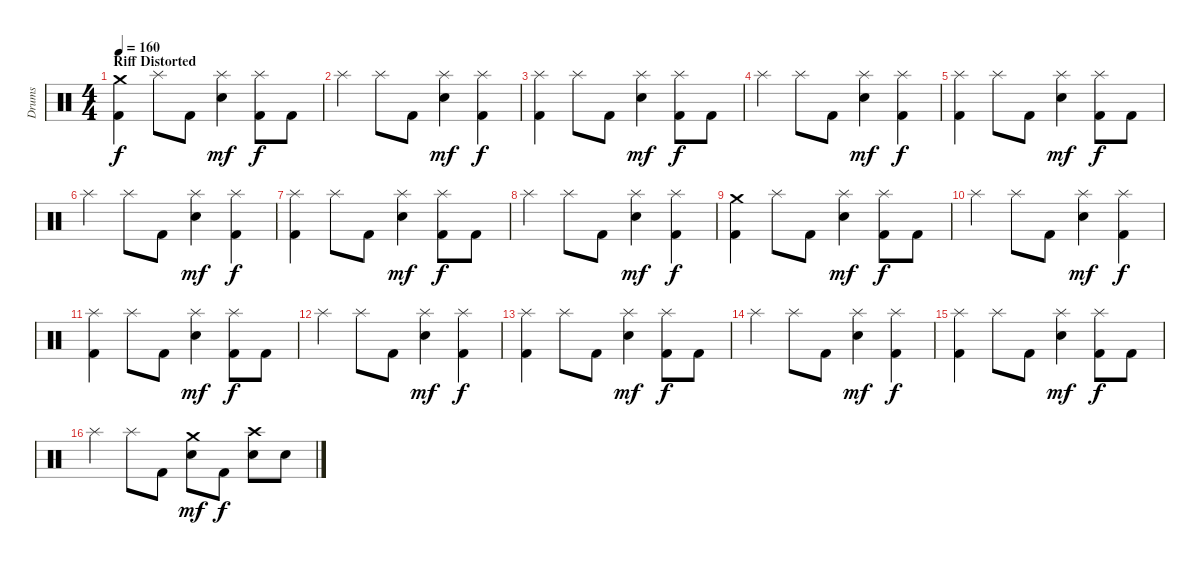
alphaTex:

\track ("Drums" "Drums") {instrument percussion}
\staff {score}
\articulation defaults
\ts (4 4)
\section ("" "Riff Distorted")
\tempo 160
\clef neutral
\ks c
("Crash medium (hit)" "Kick (hit) 2").4{dy f} "Splash (hit)".8 "Kick (hit) 2".8 ("Splash (hit)" "Electric Snare (hit)").4{dy mf} ("Splash (hit)" "Kick (hit) 2").8{dy f} "Kick (hit) 2".8 |
"Splash (hit)".4 "Splash (hit)".8 "Kick (hit) 2".8 ("Splash (hit)" "Electric Snare (hit)").4{dy mf} ("Splash (hit)" "Kick (hit) 2").4{dy f} |
("Splash (hit)" "Kick (hit) 2").4 "Splash (hit)".8 "Kick (hit) 2".8 ("Splash (hit)" "Electric Snare (hit)").4{dy mf} ("Splash (hit)" "Kick (hit) 2").8{dy f} "Kick (hit) 2".8 |
"Splash (hit)".4 "Splash (hit)".8 "Kick (hit) 2".8 ("Splash (hit)" "Electric Snare (hit)").4{dy mf} ("Splash (hit)" "Kick (hit) 2").4{dy f} |
("Splash (hit)" "Kick (hit) 2").4 "Splash (hit)".8 "Kick (hit) 2".8 ("Splash (hit)" "Electric Snare (hit)").4{dy mf} ("Splash (hit)" "Kick (hit) 2").8{dy f} "Kick (hit) 2".8 |
"Splash (hit)".4 "Splash (hit)".8 "Kick (hit) 2".8 ("Splash (hit)" "Electric Snare (hit)").4{dy mf} ("Splash (hit)" "Kick (hit) 2").4{dy f} |
("Splash (hit)" "Kick (hit) 2").4 "Splash (hit)".8 "Kick (hit) 2".8 ("Splash (hit)" "Electric Snare (hit)").4{dy mf} ("Splash (hit)" "Kick (hit) 2").8{dy f} "Kick (hit) 2".8 |
"Splash (hit)".4 "Splash (hit)".8 "Kick (hit) 2".8 ("Splash (hit)" "Electric Snare (hit)").4{dy mf} ("Splash (hit)" "Kick (hit) 2").4{dy f} |
("Crash medium (hit)" "Kick (hit) 2").4 "Splash (hit)".8 "Kick (hit) 2".8 ("Splash (hit)" "Electric Snare (hit)").4{dy mf} ("Splash (hit)" "Kick (hit) 2").8{dy f} "Kick (hit) 2".8 |
"Splash (hit)".4 "Splash (hit)".8 "Kick (hit) 2".8 ("Splash (hit)" "Electric Snare (hit)").4{dy mf} ("Splash (hit)" "Kick (hit) 2").4{dy f} |
("Splash (hit)" "Kick (hit) 2").4 "Splash (hit)".8 "Kick (hit) 2".8 ("Splash (hit)" "Electric Snare (hit)").4{dy mf} ("Splash (hit)" "Kick (hit) 2").8{dy f} "Kick (hit) 2".8 |
"Splash (hit)".4 "Splash (hit)".8 "Kick (hit) 2".8 ("Splash (hit)" "Electric Snare (hit)").4{dy mf} ("Splash (hit)" "Kick (hit) 2").4{dy f} |
("Splash (hit)" "Kick (hit) 2").4 "Splash (hit)".8 "Kick (hit) 2".8 ("Splash (hit)" "Electric Snare (hit)").4{dy mf} ("Splash (hit)" "Kick (hit) 2").8{dy f} "Kick (hit) 2".8 |
"Splash (hit)".4 "Splash (hit)".8 "Kick (hit) 2".8 ("Splash (hit)" "Electric Snare (hit)").4{dy mf} ("Splash (hit)" "Kick (hit) 2").4{dy f} |
("Splash (hit)" "Kick (hit) 2").4 "Splash (hit)".8 "Kick (hit) 2".8 ("Splash (hit)" "Electric Snare (hit)").4{dy mf} ("Splash (hit)" "Kick (hit) 2").8{dy f} "Kick (hit) 2".8 |
"Splash (hit)".4 "Splash (hit)".8 "Kick (hit) 2".8 ("Crash medium (hit)" "Electric Snare (hit)").8{dy mf} "Kick (hit) 2".8{dy f} ("Crash high (hit)" "Electric Snare (hit)").8 "Electric Snare (hit)".8
